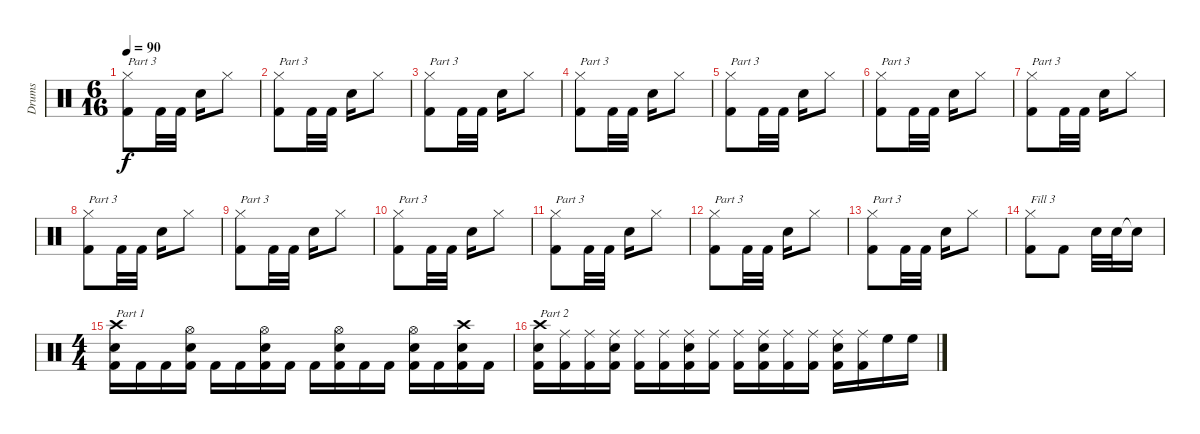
\track ("Drums" "Drums") {instrument percussion}
\staff {score}
\articulation defaults
\ts (6 16)
\tempo 90
\clef neutral
\ks c
("Hi-Hat (closed)" "Kick (hit) 2").8{txt "Part 3" dy f} "Kick (hit) 2".32 "Kick (hit) 2".32 "Snare (hit) 2".16 "Hi-Hat (closed)".8 |
("Hi-Hat (closed)" "Kick (hit) 2").8{txt "Part 3"} "Kick (hit) 2".32 "Kick (hit) 2".32 "Snare (hit) 2".16 "Hi-Hat (closed)".8 |
("Hi-Hat (closed)" "Kick (hit) 2").8{txt "Part 3"} "Kick (hit) 2".32 "Kick (hit) 2".32 "Snare (hit) 2".16 "Hi-Hat (closed)".8 |
("Hi-Hat (closed)" "Kick (hit) 2").8{txt "Part 3"} "Kick (hit) 2".32 "Kick (hit) 2".32 "Snare (hit) 2".16 "Hi-Hat (closed)".8 |
("Hi-Hat (closed)" "Kick (hit) 2").8{txt "Part 3"} "Kick (hit) 2".32 "Kick (hit) 2".32 "Snare (hit) 2".16 "Hi-Hat (closed)".8 |
("Hi-Hat (closed)" "Kick (hit) 2").8{txt "Part 3"} "Kick (hit) 2".32 "Kick (hit) 2".32 "Snare (hit) 2".16 "Hi-Hat (closed)".8 |
("Hi-Hat (closed)" "Kick (hit) 2").8{txt "Part 3"} "Kick (hit) 2".32 "Kick (hit) 2".32 "Snare (hit) 2".16 "Hi-Hat (closed)".8 |
("Hi-Hat (closed)" "Kick (hit) 2").8{txt "Part 3"} "Kick (hit) 2".32 "Kick (hit) 2".32 "Snare (hit) 2".16 "Hi-Hat (closed)".8 |
("Hi-Hat (closed)" "Kick (hit) 2").8{txt "Part 3"} "Kick (hit) 2".32 "Kick (hit) 2".32 "Snare (hit) 2".16 "Hi-Hat (closed)".8 |
("Hi-Hat (closed)" "Kick (hit) 2").8{txt "Part 3"} "Kick (hit) 2".32 "Kick (hit) 2".32 "Snare (hit) 2".16 "Hi-Hat (closed)".8 |
("Hi-Hat (closed)" "Kick (hit) 2").8{txt "Part 3"} "Kick (hit) 2".32 "Kick (hit) 2".32 "Snare (hit) 2".16 "Hi-Hat (closed)".8 |
("Hi-Hat (closed)" "Kick (hit) 2").8{txt "Part 3"} "Kick (hit) 2".32 "Kick (hit) 2".32 "Snare (hit) 2".16 "Hi-Hat (closed)".8 |
("Hi-Hat (closed)" "Kick (hit) 2").8{txt "Part 3"} "Kick (hit) 2".32 "Kick (hit) 2".32 "Snare (hit) 2".16 "Hi-Hat (closed)".8 |
("Hi-Hat (closed)" "Kick (hit) 2").8{txt "Fill 3"} "Kick (hit) 2".8 "Snare (hit) 2".32 "Snare (hit) 2".32 "Snare (hit)"{t}.16 |
\ts (4 4)
("Crash high (hit)" "Snare (hit) 2" "Kick (hit) 2").16{txt "Part 1"} "Kick (hit) 2".16 "Kick (hit) 2".16 ("Hi-Hat (open)" "Snare (hit) 2" "Kick (hit) 2").16 "Kick (hit) 2".16 "Kick (hit) 2".16 ("Hi-Hat (open)" "Snare (hit) 2" "Kick (hit) 2").16 "Kick (hit) 2".16 "Kick (hit) 2".16 ("Hi-Hat (open)" "Snare (hit) 2" "Kick (hit) 2").16 "Kick (hit) 2".16 "Kick (hit) 2".16 ("Hi-Hat (open)" "Snare (hit) 2" "Kick (hit) 2").16 "Kick (hit) 2".16 ("Crash high (hit)" "Snare (hit) 2" "Kick (hit) 2").16 "Kick (hit) 2".16 |
("Crash high (hit)" "Snare (hit) 2" "Kick (hit) 2").16{txt "Part 2"} ("Ride (middle)" "Kick (hit) 2").16 ("Ride (middle)" "Kick (hit) 2").16 ("Ride (middle)" "Snare (hit) 2" "Kick (hit) 2").16 ("Ride (middle)" "Kick (hit) 2").16 ("Ride (middle)" "Kick (hit) 2").16 ("Ride (middle)" "Snare (hit) 2" "Kick (hit) 2").16 ("Ride (middle)" "Kick (hit) 2").16 ("Ride (middle)" "Kick (hit) 2").16 ("Ride (middle)" "Snare (hit) 2" "Kick (hit) 2").16 ("Ride (middle)" "Kick (hit) 2").16 ("Ride (middle)" "Kick (hit) 2").16 ("Ride (middle)" "Snare (hit) 2" "Kick (hit) 2").16 ("Ride (middle)" "Kick (hit) 2").16 "High Floor Tom (hit)".16 "High Floor Tom (hit)".16
